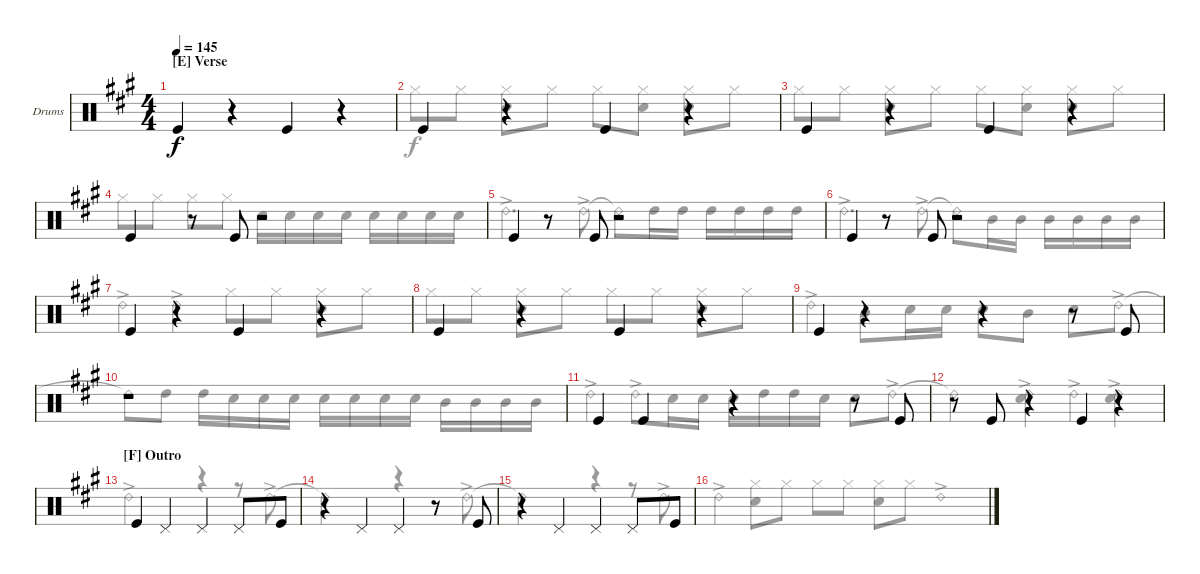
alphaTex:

\bracketExtendMode groupsimilarinstruments
\firstSystemTrackNameOrientation horizontal
\otherSystemsTrackNameOrientation horizontal
\track ("Drumkit" "Drums") {instrument percussion}
\staff {score}
\articulation defaults
\voice
\ts (4 4)
\section ("E" "Verse")
\tempo 145
\clef neutral
\scale
1.05801
\ks a "Kick (hit)".4{dy f}
r.4 "Kick (hit)".4 r.4 |
\scale
0.941992 "Kick (hit)".4 r.4 "Kick (hit)".4 r.4 |
\scale
1.05801 "Kick (hit)".4 r.4 "Kick (hit)".4 r.4 |
\scale
0.941992 "Kick (hit)".4 r.8 "Kick (hit)".8 r.2 |
\scale
1.05801 "Kick (hit)".4 r.8 "Kick (hit)".8 r.2 |
\scale
0.941992 "Kick (hit)".4 r.8 "Kick (hit)".8 r.2 |
\scale
1.05801 "Kick (hit)".4 r.4 "Kick (hit)".4 r.4 |
\scale
0.941992 "Kick (hit)".4 r.4 "Kick (hit)".4 r.4 |
\scale
1.05801 "Kick (hit)".4 r.4 r.4 r.8 "Kick (hit)".8 |
\scale
0.941992 r.1 |
\scale
1.05801 "Kick (hit)".4 "Kick (hit)".4 r.4 r.8 "Kick (hit)".8 |
\scale
0.941992 r.8 "Kick (hit)".8 r.4 "Kick (hit)".4 r.4 |
\section ("F" "Outro")
\scale
1.05801 "Kick (hit)".4 "Pedal Hi-Hat (hit)".4 "Pedal Hi-Hat (hit)".4 "Pedal Hi-Hat (hit)".8 "Kick (hit)".8 |
\scale
0.941992 r.4 "Pedal Hi-Hat (hit)".4 "Pedal Hi-Hat (hit)".4 r.8 "Kick (hit)".8 |
\scale
1.05801 r.4 "Pedal Hi-Hat (hit)".4 "Pedal Hi-Hat (hit)".4 "Pedal Hi-Hat (hit)".8 "Kick (hit)".8 |
\scale
0.941992
\voice
\clef neutral
\ottava regular
\simile none
\scale
1.05801
\ks a "Ride (bell) 2"{ac}.4{dy f}
("Snare (hit) 2" "Hi-Hat (closed)").8 "Hi-Hat (closed)".8 "Hi-Hat (closed)".8 "Hi-Hat (closed)".8 ("Hi-Hat (closed)" "Snare (hit) 2").8 "Hi-Hat (closed)".8 |
\scale
0.941992 "Hi-Hat (closed)".8 "Hi-Hat (closed)".8 ("Snare (hit) 2" "Hi-Hat (closed)").8 "Hi-Hat (closed)".8 "Hi-Hat (closed)".8 ("Hi-Hat (closed)" "Snare (hit) 2").8 ("Hi-Hat (closed)" "Snare (hit) 2").8 "Hi-Hat (closed)".8 |
\scale
1.05801 "Hi-Hat (closed)".8 "Hi-Hat (closed)".8 ("Snare (hit) 2" "Hi-Hat (closed)").8 "Hi-Hat (closed)".8 "Hi-Hat (closed)".8 ("Hi-Hat (closed)" "Snare (hit) 2").8 ("Hi-Hat (closed)" "Snare (hit) 2").8 "Hi-Hat (closed)".8 |
\scale
0.941992 "Hi-Hat (closed)".8 "Hi-Hat (closed)".8 "Hi-Hat (closed)".8 "Hi-Hat (closed)".8 "Snare (hit) 2".16 "Snare (hit) 2".16 "Snare (hit) 2".16 "Snare (hit) 2".16 "Snare (hit) 2".16 "Snare (hit) 2".16 "Snare (hit) 2".16 "Snare (hit) 2".16 |
\scale
1.05801 "Ride (bell) 2"{ac}.4{d} "Ride (bell) 2"{ac}.8 "Ride (bell) 2"{t}.8 "High Tom (hit)".16 "High Tom (hit)".16 "High Tom (hit)".16 "High Tom (hit)".16 "High Tom (hit)".16 "High Tom (hit)".16 |
\scale
0.941992 "Ride (bell) 2"{ac}.4{d} "Ride (bell) 2"{ac}.8 "Ride (bell) 2"{t}.8 "Mid Tom (hit)".16 "Mid Tom (hit)".16 "Mid Tom (hit)".16 "Mid Tom (hit)".16 "Mid Tom (hit)".16 "Mid Tom (hit)".16 |
\scale
1.05801 "Ride (bell) 2"{ac}.4 "Ride (bell) 2"{ac}.4 "Hi-Hat (closed)".8 "Hi-Hat (closed)".8 ("Snare (hit) 2" "Hi-Hat (closed)").8 "Hi-Hat (closed)".8 |
\scale
0.941992 "Hi-Hat (closed)".8 "Hi-Hat (closed)".8 ("Snare (hit) 2" "Hi-Hat (closed)").8 "Hi-Hat (closed)".8 "Hi-Hat (closed)".8 "Hi-Hat (closed)".8 ("Snare (hit) 2" "Hi-Hat (closed)").8 "Hi-Hat (closed)".8 |
\scale
1.05801 "Ride (bell) 2"{ac}.4 "Mid Tom (hit)".8 "Snare (hit) 2".16 "Snare (hit) 2".16 "Snare (hit) 2".8 "Mid Tom (hit)".8 "Snare (hit) 2".8 "Ride (bell) 2"{ac}.8 |
\scale
0.941992 "Ride (bell) 2"{t}.8 "High Tom (hit)".8 "High Tom (hit)".16 "Snare (hit) 2".16 "Snare (hit) 2".16 "Snare (hit) 2".16 "Snare (hit) 2".16 "Snare (hit) 2".16 "Snare (hit) 2".16 "Snare (hit) 2".16 "Mid Tom (hit)".16 "Mid Tom (hit)".16 "Mid Tom (hit)".16 "Mid Tom (hit)".16 |
\scale
1.05801 "Ride (bell) 2"{ac}.4 "Ride (bell) 2"{ac}.8 "Snare (hit) 2".16 "Snare (hit) 2".16 "Snare (hit) 2".16 "High Tom (hit)".16 "High Tom (hit)".16 "Snare (hit) 2".16 "Snare (hit) 2".8 "Ride (bell) 2"{ac}.8 |
\scale
0.941992 "Ride (bell) 2"{t}.4 ("Ride (bell) 2" "Snare (hit) 2"{ac}).4 "Ride (bell) 2"{ac}.4 ("Ride (bell) 2"{ac} "Snare (hit) 2").4 |
\scale
1.05801 "Ride (bell) 2"{ac}.2 r.4 r.8 "Ride (bell) 2"{ac}.8 |
\scale
0.941992 "Ride (bell) 2"{t}.2 r.4 r.8 "Ride (bell) 2"{ac}.8 |
\scale
1.05801 "Ride (bell) 2"{t}.2 r.4 r.8 "Ride (bell) 2"{ac}.8 |
\scale
0.941992 "Ride (bell) 2"{ac}.1{fermata (medium 0.46)}
